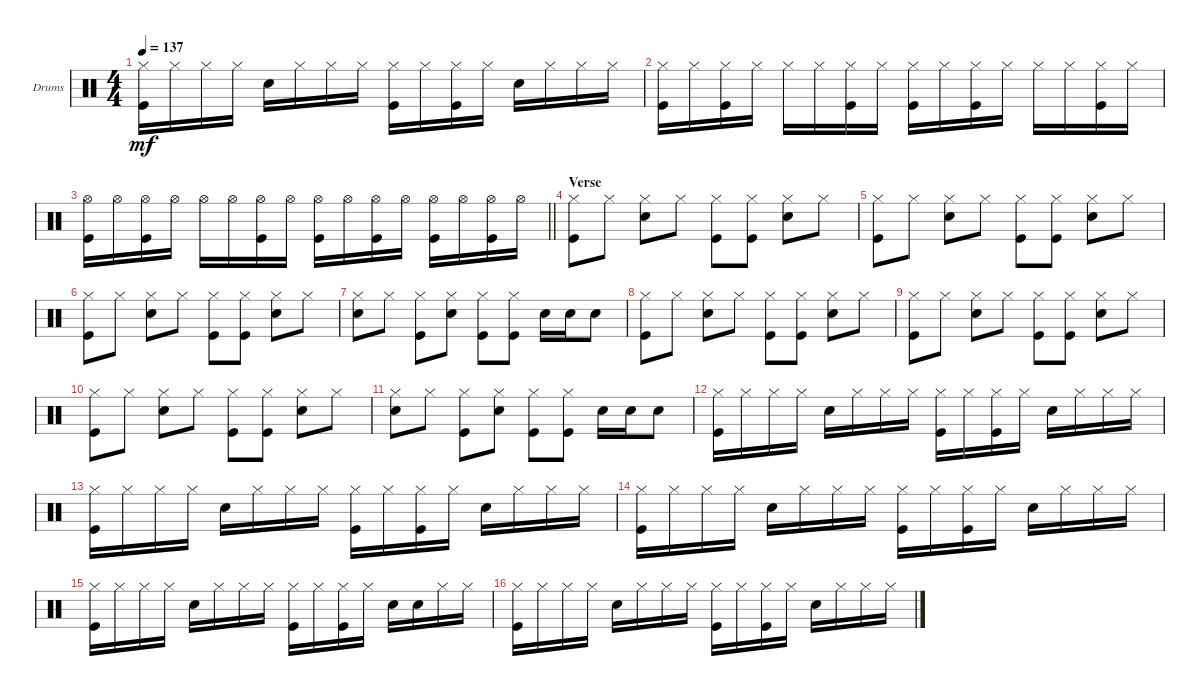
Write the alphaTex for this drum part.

\bracketExtendMode groupsimilarinstruments
\firstSystemTrackNameOrientation horizontal
\otherSystemsTrackNameOrientation horizontal
\track ("Drumkit" "Drums") {instrument percussion}
\staff {score}
\articulation defaults
\ts (4 4)
\tempo 137
\clef neutral
\scale
0.333333
\ks c
("Hi-Hat (closed)" "Kick (hit)").16{dy mf} "Hi-Hat (closed)".16 "Hi-Hat (closed)".16 "Hi-Hat (closed)".16 "Snare (hit) 2".16 "Hi-Hat (closed)".16 "Hi-Hat (closed)".16 "Hi-Hat (closed)".16 ("Hi-Hat (closed)" "Kick (hit)").16 "Hi-Hat (closed)".16 ("Hi-Hat (closed)" "Kick (hit)").16 "Hi-Hat (closed)".16 "Snare (hit) 2".16 "Hi-Hat (closed)".16 "Hi-Hat (closed)".16 "Hi-Hat (closed)".16 |
\scale
0.333333 ("Hi-Hat (closed)" "Kick (hit)").16 "Hi-Hat (closed)".16 ("Hi-Hat (closed)" "Kick (hit)").16 "Hi-Hat (closed)".16 "Hi-Hat (closed)".16 "Hi-Hat (closed)".16 ("Hi-Hat (closed)" "Kick (hit)").16 "Hi-Hat (closed)".16 ("Hi-Hat (closed)" "Kick (hit)").16 "Hi-Hat (closed)".16 ("Hi-Hat (closed)" "Kick (hit)").16 "Hi-Hat (closed)".16 "Hi-Hat (closed)".16 "Hi-Hat (closed)".16 ("Hi-Hat (closed)" "Kick (hit)").16 "Hi-Hat (closed)".16 |
\scale
0.333333
\barLineRight lightlight
("Hi-Hat (open)" "Kick (hit)").16 "Hi-Hat (open)".16 ("Hi-Hat (open)" "Kick (hit)").16 "Hi-Hat (open)".16 "Hi-Hat (open)".16 "Hi-Hat (open)".16 ("Hi-Hat (open)" "Kick (hit)").16 "Hi-Hat (open)".16 ("Kick (hit)" "Hi-Hat (open)").16 "Hi-Hat (open)".16 ("Hi-Hat (open)" "Kick (hit)").16 "Hi-Hat (open)".16 ("Hi-Hat (open)" "Kick (hit)").16 "Hi-Hat (open)".16 ("Hi-Hat (open)" "Kick (hit)").16 "Hi-Hat (open)".16 |
\section ("" "Verse")
\scale
0.333333 ("Kick (hit)" "Hi-Hat (closed)").8 "Hi-Hat (closed)".8 ("Snare (hit) 2" "Hi-Hat (closed)").8 "Hi-Hat (closed)".8 ("Hi-Hat (closed)" "Kick (hit)").8 ("Hi-Hat (closed)" "Kick (hit)").8 ("Hi-Hat (closed)" "Snare (hit) 2").8 "Hi-Hat (closed)".8 |
\scale
0.333333 ("Kick (hit)" "Hi-Hat (closed)").8 "Hi-Hat (closed)".8 ("Snare (hit) 2" "Hi-Hat (closed)").8 "Hi-Hat (closed)".8 ("Hi-Hat (closed)" "Kick (hit)").8 ("Hi-Hat (closed)" "Kick (hit)").8 ("Hi-Hat (closed)" "Snare (hit) 2").8 "Hi-Hat (closed)".8 |
\scale
0.333333 ("Kick (hit)" "Hi-Hat (closed)").8 "Hi-Hat (closed)".8 ("Snare (hit) 2" "Hi-Hat (closed)").8 "Hi-Hat (closed)".8 ("Hi-Hat (closed)" "Kick (hit)").8 ("Hi-Hat (closed)" "Kick (hit)").8 ("Hi-Hat (closed)" "Snare (hit) 2").8 "Hi-Hat (closed)".8 |
\scale
0.333333 ("Snare (hit) 2" "Hi-Hat (closed)").8 "Hi-Hat (closed)".8 ("Kick (hit)" "Hi-Hat (closed)").8 ("Snare (hit) 2" "Hi-Hat (closed)").8 ("Kick (hit)" "Hi-Hat (closed)").8 ("Kick (hit)" "Hi-Hat (closed)").8 "Snare (hit) 2".16 "Snare (hit) 2".16 "Snare (hit) 2".8 |
\scale
0.333333 ("Kick (hit)" "Hi-Hat (closed)").8 "Hi-Hat (closed)".8 ("Snare (hit) 2" "Hi-Hat (closed)").8 "Hi-Hat (closed)".8 ("Hi-Hat (closed)" "Kick (hit)").8 ("Hi-Hat (closed)" "Kick (hit)").8 ("Hi-Hat (closed)" "Snare (hit) 2").8 "Hi-Hat (closed)".8 |
\scale
0.333333 ("Kick (hit)" "Hi-Hat (closed)").8 "Hi-Hat (closed)".8 ("Snare (hit) 2" "Hi-Hat (closed)").8 "Hi-Hat (closed)".8 ("Hi-Hat (closed)" "Kick (hit)").8 ("Hi-Hat (closed)" "Kick (hit)").8 ("Hi-Hat (closed)" "Snare (hit) 2").8 "Hi-Hat (closed)".8 |
\scale
0.333333 ("Kick (hit)" "Hi-Hat (closed)").8 "Hi-Hat (closed)".8 ("Snare (hit) 2" "Hi-Hat (closed)").8 "Hi-Hat (closed)".8 ("Hi-Hat (closed)" "Kick (hit)").8 ("Hi-Hat (closed)" "Kick (hit)").8 ("Hi-Hat (closed)" "Snare (hit) 2").8 "Hi-Hat (closed)".8 |
\scale
0.333333 ("Snare (hit) 2" "Hi-Hat (closed)").8 "Hi-Hat (closed)".8 ("Kick (hit)" "Hi-Hat (closed)").8 ("Snare (hit) 2" "Hi-Hat (closed)").8 ("Kick (hit)" "Hi-Hat (closed)").8 ("Kick (hit)" "Hi-Hat (closed)").8 "Snare (hit) 2".16 "Snare (hit) 2".16 "Snare (hit) 2".8 |
\scale
0.333333 ("Hi-Hat (closed)" "Kick (hit)").16 "Hi-Hat (closed)".16 "Hi-Hat (closed)".16 "Hi-Hat (closed)".16 "Snare (hit) 2".16 "Hi-Hat (closed)".16 "Hi-Hat (closed)".16 "Hi-Hat (closed)".16 ("Hi-Hat (closed)" "Kick (hit)").16 "Hi-Hat (closed)".16 ("Hi-Hat (closed)" "Kick (hit)").16 "Hi-Hat (closed)".16 "Snare (hit) 2".16 "Hi-Hat (closed)".16 "Hi-Hat (closed)".16 "Hi-Hat (closed)".16 |
\scale
0.333333 ("Hi-Hat (closed)" "Kick (hit)").16 "Hi-Hat (closed)".16 "Hi-Hat (closed)".16 "Hi-Hat (closed)".16 "Snare (hit) 2".16 "Hi-Hat (closed)".16 "Hi-Hat (closed)".16 "Hi-Hat (closed)".16 ("Hi-Hat (closed)" "Kick (hit)").16 "Hi-Hat (closed)".16 ("Hi-Hat (closed)" "Kick (hit)").16 "Hi-Hat (closed)".16 "Snare (hit) 2".16 "Hi-Hat (closed)".16 "Hi-Hat (closed)".16 "Hi-Hat (closed)".16 |
\scale
0.333333 ("Hi-Hat (closed)" "Kick (hit)").16 "Hi-Hat (closed)".16 "Hi-Hat (closed)".16 "Hi-Hat (closed)".16 "Snare (hit) 2".16 "Hi-Hat (closed)".16 "Hi-Hat (closed)".16 "Hi-Hat (closed)".16 ("Hi-Hat (closed)" "Kick (hit)").16 "Hi-Hat (closed)".16 ("Hi-Hat (closed)" "Kick (hit)").16 "Hi-Hat (closed)".16 "Snare (hit) 2".16 "Hi-Hat (closed)".16 "Hi-Hat (closed)".16 "Hi-Hat (closed)".16 |
\scale
0.333333 ("Hi-Hat (closed)" "Kick (hit)").16 "Hi-Hat (closed)".16 "Hi-Hat (closed)".16 "Hi-Hat (closed)".16 "Snare (hit) 2".16 "Hi-Hat (closed)".16 "Hi-Hat (closed)".16 "Hi-Hat (closed)".16 ("Hi-Hat (closed)" "Kick (hit)").16 "Hi-Hat (closed)".16 ("Hi-Hat (closed)" "Kick (hit)").16 "Hi-Hat (closed)".16 "Snare (hit) 2".16 "Snare (hit) 2".16 "Hi-Hat (closed)".16 "Hi-Hat (closed)".16 |
\scale
0.333333 ("Hi-Hat (closed)" "Kick (hit)").16 "Hi-Hat (closed)".16 "Hi-Hat (closed)".16 "Hi-Hat (closed)".16 "Snare (hit) 2".16 "Hi-Hat (closed)".16 "Hi-Hat (closed)".16 "Hi-Hat (closed)".16 ("Hi-Hat (closed)" "Kick (hit)").16 "Hi-Hat (closed)".16 ("Hi-Hat (closed)" "Kick (hit)").16 "Hi-Hat (closed)".16 "Snare (hit) 2".16 "Hi-Hat (closed)".16 "Hi-Hat (closed)".16 "Hi-Hat (closed)".16
